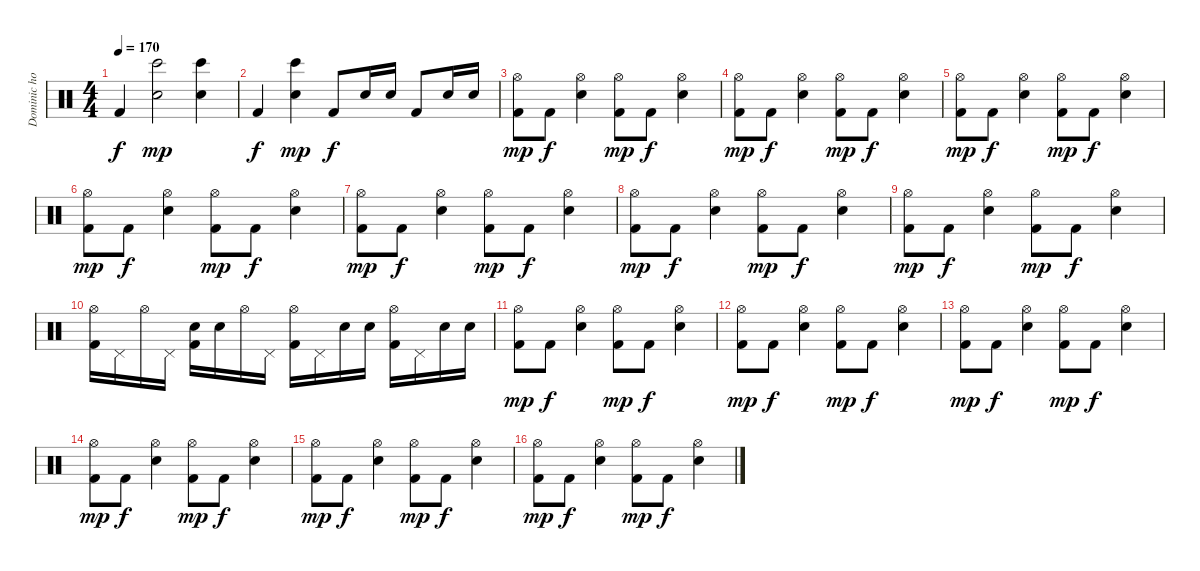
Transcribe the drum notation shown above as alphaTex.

\track ("Dominic howard" "Dominic ho") {instrument percussion}
\staff {score}
\articulation defaults
\ts (4 4)
\tempo 170
\clef neutral
\ks c "Kick (hit) 2".4{dy f}
("Electric Snare (hit)" "Bongo High (hit)").2{dy mp} ("Electric Snare (hit)" "Bongo High (hit)").4 |
"Kick (hit) 2".4{dy f} ("Electric Snare (hit)" "Bongo High (hit)").4{dy mp} "Kick (hit) 2".8{dy f} "Electric Snare (hit)".16 "Electric Snare (hit)".16 "Kick (hit) 2".8 "Electric Snare (hit)".16 "Electric Snare (hit)".16 |
("Hi-Hat (open)" "Kick (hit) 2").8{dy mp} "Kick (hit) 2".8{dy f} ("Hi-Hat (open)" "Electric Snare (hit)").4 ("Hi-Hat (open)" "Kick (hit) 2").8{dy mp} "Kick (hit) 2".8{dy f} ("Hi-Hat (open)" "Electric Snare (hit)").4 |
("Hi-Hat (open)" "Kick (hit) 2").8{dy mp} "Kick (hit) 2".8{dy f} ("Hi-Hat (open)" "Electric Snare (hit)").4 ("Hi-Hat (open)" "Kick (hit) 2").8{dy mp} "Kick (hit) 2".8{dy f} ("Hi-Hat (open)" "Electric Snare (hit)").4 |
("Hi-Hat (open)" "Kick (hit) 2").8{dy mp} "Kick (hit) 2".8{dy f} ("Hi-Hat (open)" "Electric Snare (hit)").4 ("Hi-Hat (open)" "Kick (hit) 2").8{dy mp} "Kick (hit) 2".8{dy f} ("Hi-Hat (open)" "Electric Snare (hit)").4 |
("Hi-Hat (open)" "Kick (hit) 2").8{dy mp} "Kick (hit) 2".8{dy f} ("Hi-Hat (open)" "Electric Snare (hit)").4 ("Hi-Hat (open)" "Kick (hit) 2").8{dy mp} "Kick (hit) 2".8{dy f} ("Hi-Hat (open)" "Electric Snare (hit)").4 |
("Hi-Hat (open)" "Kick (hit) 2").8{dy mp} "Kick (hit) 2".8{dy f} ("Hi-Hat (open)" "Electric Snare (hit)").4 ("Hi-Hat (open)" "Kick (hit) 2").8{dy mp} "Kick (hit) 2".8{dy f} ("Hi-Hat (open)" "Electric Snare (hit)").4 |
("Hi-Hat (open)" "Kick (hit) 2").8{dy mp} "Kick (hit) 2".8{dy f} ("Hi-Hat (open)" "Electric Snare (hit)").4 ("Hi-Hat (open)" "Kick (hit) 2").8{dy mp} "Kick (hit) 2".8{dy f} ("Hi-Hat (open)" "Electric Snare (hit)").4 |
("Hi-Hat (open)" "Kick (hit) 2").8{dy mp} "Kick (hit) 2".8{dy f} ("Hi-Hat (open)" "Electric Snare (hit)").4 ("Hi-Hat (open)" "Kick (hit) 2").8{dy mp} "Kick (hit) 2".8{dy f} ("Hi-Hat (open)" "Electric Snare (hit)").4 |
("Hi-Hat (open)" "Kick (hit) 2").16 "Pedal Hi-Hat (hit)".16 "Hi-Hat (open)".16 "Pedal Hi-Hat (hit)".16 ("Electric Snare (hit)" "Kick (hit) 2").16 "Electric Snare (hit)".16 "Hi-Hat (open)".16 "Pedal Hi-Hat (hit)".16 ("Hi-Hat (open)" "Kick (hit) 2").16 "Pedal Hi-Hat (hit)".16 "Electric Snare (hit)".16 "Electric Snare (hit)".16 ("Hi-Hat (open)" "Kick (hit) 2").16 "Pedal Hi-Hat (hit)".16 "Electric Snare (hit)".16 "Electric Snare (hit)".16 |
("Hi-Hat (open)" "Kick (hit) 2").8{dy mp} "Kick (hit) 2".8{dy f} ("Hi-Hat (open)" "Electric Snare (hit)").4 ("Hi-Hat (open)" "Kick (hit) 2").8{dy mp} "Kick (hit) 2".8{dy f} ("Hi-Hat (open)" "Electric Snare (hit)").4 |
("Hi-Hat (open)" "Kick (hit) 2").8{dy mp} "Kick (hit) 2".8{dy f} ("Hi-Hat (open)" "Electric Snare (hit)").4 ("Hi-Hat (open)" "Kick (hit) 2").8{dy mp} "Kick (hit) 2".8{dy f} ("Hi-Hat (open)" "Electric Snare (hit)").4 |
("Hi-Hat (open)" "Kick (hit) 2").8{dy mp} "Kick (hit) 2".8{dy f} ("Hi-Hat (open)" "Electric Snare (hit)").4 ("Hi-Hat (open)" "Kick (hit) 2").8{dy mp} "Kick (hit) 2".8{dy f} ("Hi-Hat (open)" "Electric Snare (hit)").4 |
("Hi-Hat (open)" "Kick (hit) 2").8{dy mp} "Kick (hit) 2".8{dy f} ("Hi-Hat (open)" "Electric Snare (hit)").4 ("Hi-Hat (open)" "Kick (hit) 2").8{dy mp} "Kick (hit) 2".8{dy f} ("Hi-Hat (open)" "Electric Snare (hit)").4 |
("Hi-Hat (open)" "Kick (hit) 2").8{dy mp} "Kick (hit) 2".8{dy f} ("Hi-Hat (open)" "Electric Snare (hit)").4 ("Hi-Hat (open)" "Kick (hit) 2").8{dy mp} "Kick (hit) 2".8{dy f} ("Hi-Hat (open)" "Electric Snare (hit)").4 |
("Hi-Hat (open)" "Kick (hit) 2").8{dy mp} "Kick (hit) 2".8{dy f} ("Hi-Hat (open)" "Electric Snare (hit)").4 ("Hi-Hat (open)" "Kick (hit) 2").8{dy mp} "Kick (hit) 2".8{dy f} ("Hi-Hat (open)" "Electric Snare (hit)").4
